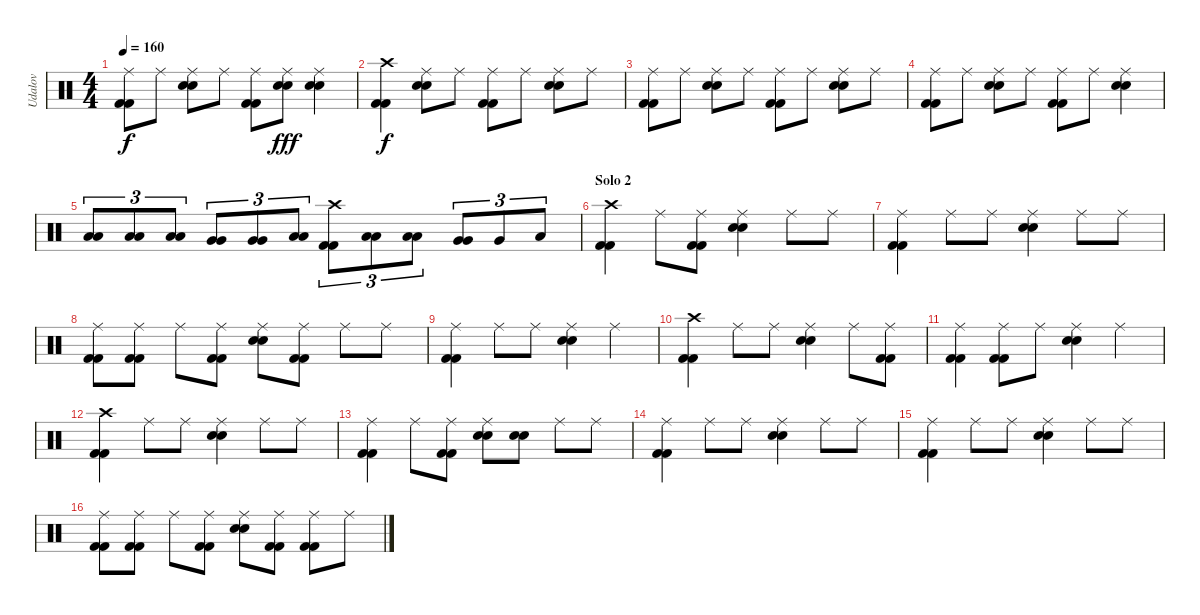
\track ("Udalov" "Udalov") {instrument percussion}
\staff {score}
\articulation defaults
\ts (4 4)
\tempo 160
\clef neutral
\ks c
("Ride (middle)" "Kick (hit) 2" "Kick (hit) 2").8{dy f} "Ride (middle)".8 ("Ride (middle)" "Electric Snare (hit)" "Electric Snare (hit)").8 "Ride (middle)".8 ("Ride (middle)" "Kick (hit) 2" "Kick (hit) 2").8 ("Ride (middle)" "Electric Snare (hit)" "Electric Snare (hit)").8{dy fff} ("Ride (middle)" "Electric Snare (hit)" "Electric Snare (hit)").4 |
("Crash high (hit)" "Kick (hit) 2" "Kick (hit) 2").4{dy f} ("Ride (middle)" "Electric Snare (hit)" "Electric Snare (hit)").8 "Ride (middle)".8 ("Ride (middle)" "Kick (hit) 2" "Kick (hit) 2").8 "Ride (middle)".8 ("Ride (middle)" "Electric Snare (hit)" "Electric Snare (hit)").8 "Ride (middle)".8 |
("Ride (middle)" "Kick (hit) 2" "Kick (hit) 2").8 "Ride (middle)".8 ("Ride (middle)" "Electric Snare (hit)" "Electric Snare (hit)").8 "Ride (middle)".8 ("Ride (middle)" "Kick (hit) 2" "Kick (hit) 2").8 "Ride (middle)".8 ("Ride (middle)" "Electric Snare (hit)" "Electric Snare (hit)").8 "Ride (middle)".8 |
("Ride (middle)" "Kick (hit) 2" "Kick (hit) 2").8 "Ride (middle)".8 ("Ride (middle)" "Electric Snare (hit)" "Electric Snare (hit)").8 "Ride (middle)".8 ("Ride (middle)" "Kick (hit) 2" "Kick (hit) 2").8 "Ride (middle)".8 ("Ride (middle)" "Electric Snare (hit)" "Electric Snare (hit)").4 |
("Low Tom (hit)" "Low Tom (hit)").8{tu (3 2)} ("Low Tom (hit)" "Low Tom (hit)").8{tu (3 2)} ("Low Tom (hit)" "Low Tom (hit)").8{tu (3 2)} ("Very Low Tom (hit)" "Very Low Tom (hit)").8{tu (3 2)} ("Very Low Tom (hit)" "Very Low Tom (hit)").8{tu (3 2)} ("Low Floor Tom (hit)" "Low Floor Tom (hit)").8{tu (3 2)} ("Crash high (hit)" "Kick (hit) 2" "Kick (hit) 2").8{tu (3 2)} ("Low Tom (hit)" "Low Tom (hit)").8{tu (3 2)} ("Low Tom (hit)" "Low Tom (hit)").8{tu (3 2)} ("Very Low Tom (hit)" "Very Low Tom (hit)").8{tu (3 2)} "Very Low Tom (hit)".8{tu (3 2)} "Low Floor Tom (hit)".8{tu (3 2)} |
\section ("" "Solo 2")
("Crash high (hit)" "Kick (hit) 2" "Kick (hit) 2").4 "Ride (middle)".8 ("Ride (middle)" "Kick (hit) 2" "Kick (hit) 2").8 ("Ride (middle)" "Electric Snare (hit)" "Electric Snare (hit)").4 "Ride (middle)".8 "Ride (middle)".8 |
("Ride (middle)" "Kick (hit) 2" "Kick (hit) 2").4 "Ride (middle)".8 "Ride (middle)".8 ("Ride (middle)" "Electric Snare (hit)" "Electric Snare (hit)").4 "Ride (middle)".8 "Ride (middle)".8 |
("Ride (middle)" "Kick (hit) 2" "Kick (hit) 2").8 ("Ride (middle)" "Kick (hit) 2" "Kick (hit) 2").8 "Ride (middle)".8 ("Ride (middle)" "Kick (hit) 2" "Kick (hit) 2").8 ("Ride (middle)" "Electric Snare (hit)" "Electric Snare (hit)").8 ("Ride (middle)" "Kick (hit) 2" "Kick (hit) 2").8 "Ride (middle)".8 "Ride (middle)".8 |
("Ride (middle)" "Kick (hit) 2" "Kick (hit) 2").4 "Ride (middle)".8 "Ride (middle)".8 ("Ride (middle)" "Electric Snare (hit)" "Electric Snare (hit)").4 "Ride (middle)".4 |
("Crash high (hit)" "Kick (hit) 2" "Kick (hit) 2").4 "Ride (middle)".8 "Ride (middle)".8 ("Ride (middle)" "Electric Snare (hit)" "Electric Snare (hit)").4 "Ride (middle)".8 ("Ride (middle)" "Kick (hit) 2" "Kick (hit) 2").8 |
("Ride (middle)" "Kick (hit) 2" "Kick (hit) 2").4 ("Ride (middle)" "Kick (hit) 2" "Kick (hit) 2").8 "Ride (middle)".8 ("Ride (middle)" "Electric Snare (hit)" "Electric Snare (hit)").4 "Ride (middle)".4 |
("Crash high (hit)" "Kick (hit) 2" "Kick (hit) 2").4 "Ride (middle)".8 "Ride (middle)".8 ("Ride (middle)" "Electric Snare (hit)" "Electric Snare (hit)").4 "Ride (middle)".8 "Ride (middle)".8 |
("Ride (middle)" "Kick (hit) 2" "Kick (hit) 2").4 "Ride (middle)".8 ("Ride (middle)" "Kick (hit) 2" "Kick (hit) 2").8 ("Ride (middle)" "Electric Snare (hit)" "Electric Snare (hit)").8 ("Electric Snare (hit)" "Electric Snare (hit)").8 "Ride (middle)".8 "Ride (middle)".8 |
("Ride (middle)" "Kick (hit) 2" "Kick (hit) 2").4 "Ride (middle)".8 "Ride (middle)".8 ("Ride (middle)" "Electric Snare (hit)" "Electric Snare (hit)").4 "Ride (middle)".8 "Ride (middle)".8 |
("Ride (middle)" "Kick (hit) 2" "Kick (hit) 2").4 "Ride (middle)".8 "Ride (middle)".8 ("Ride (middle)" "Electric Snare (hit)" "Electric Snare (hit)").4 "Ride (middle)".8 "Ride (middle)".8 |
("Ride (middle)" "Kick (hit) 2" "Kick (hit) 2").8 ("Ride (middle)" "Kick (hit) 2" "Kick (hit) 2").8 "Ride (middle)".8 ("Ride (middle)" "Kick (hit) 2" "Kick (hit) 2").8 ("Ride (middle)" "Electric Snare (hit)" "Electric Snare (hit)").8 ("Ride (middle)" "Kick (hit) 2" "Kick (hit) 2").8 ("Ride (middle)" "Kick (hit) 2" "Kick (hit) 2").8 "Ride (middle)".8
